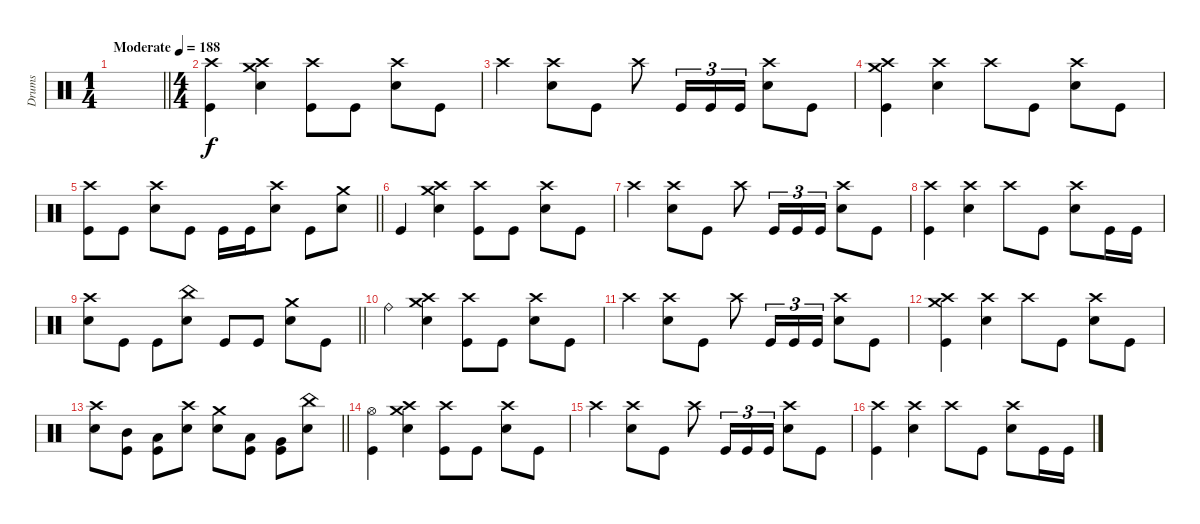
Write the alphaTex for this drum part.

\track ("Drums" "Drums") {instrument percussion}
\staff
\articulation defaults
\ts (1 4)
\tempo (188 "Moderate")
\clef neutral
\barLineRight lightlight
\ks c
|
\ts (4 4)
("Crash high (hit)" "Kick (hit)").4 ("Crash medium (hit)" "Crash high (hit)" "Electric Snare (hit)").4 ("Crash high (hit)" "Kick (hit)").8 "Kick (hit)".8 ("Crash high (hit)" "Electric Snare (hit)").8 "Kick (hit)".8 |
"Crash high (hit)".4 ("Crash high (hit)" "Electric Snare (hit)").8 "Kick (hit)".8 "Crash high (hit)".8 "Kick (hit)".16{tu (3 2)} "Kick (hit)".16{tu (3 2)} "Kick (hit)".16{tu (3 2)} ("Crash high (hit)" "Electric Snare (hit)").8 "Kick (hit)".8 |
("Crash medium (hit)" "Crash high (hit)" "Kick (hit)").4 ("Crash high (hit)" "Electric Snare (hit)").4 "Crash high (hit)".8 "Kick (hit)".8 ("Crash high (hit)" "Electric Snare (hit)").8 "Kick (hit)".8 |
\barLineRight lightlight
("Crash high (hit)" "Kick (hit)").8 "Kick (hit)".8 ("Crash high (hit)" "Electric Snare (hit)").8 "Kick (hit)".8 "Kick (hit)".16 "Kick (hit)".16 ("Crash high (hit)" "Electric Snare (hit)").8 "Kick (hit)".8 ("Crash medium (hit)" "Electric Snare (hit)").8 |
"Kick (hit)".4 ("Crash medium (hit)" "Crash high (hit)" "Electric Snare (hit)").4 ("Crash high (hit)" "Kick (hit)").8 "Kick (hit)".8 ("Crash high (hit)" "Electric Snare (hit)").8 "Kick (hit)".8 |
"Crash high (hit)".4 ("Crash high (hit)" "Electric Snare (hit)").8 "Kick (hit)".8 "Crash high (hit)".8 "Kick (hit)".16{tu (3 2)} "Kick (hit)".16{tu (3 2)} "Kick (hit)".16{tu (3 2)} ("Crash high (hit)" "Electric Snare (hit)").8 "Kick (hit)".8 |
("Crash high (hit)" "Kick (hit)").4 ("Crash high (hit)" "Electric Snare (hit)").4 "Crash high (hit)".8 "Kick (hit)".8 ("Crash high (hit)" "Electric Snare (hit)").8 "Kick (hit)".16 "Kick (hit)".16 |
\barLineRight lightlight
("Crash high (hit)" "Electric Snare (hit)").8 "Kick (hit)".8 "Kick (hit)".8 ("China (hit)" "Electric Snare (hit)").8 "Kick (hit)".8 "Kick (hit)".8 ("Crash medium (hit)" "Electric Snare (hit)").8 "Kick (hit)".8 |
"Ride (bell)".4 ("Crash medium (hit)" "Crash high (hit)" "Electric Snare (hit)").4 ("Crash high (hit)" "Kick (hit)").8 "Kick (hit)".8 ("Crash high (hit)" "Electric Snare (hit)").8 "Kick (hit)".8 |
"Crash high (hit)".4 ("Crash high (hit)" "Electric Snare (hit)").8 "Kick (hit)".8 "Crash high (hit)".8 "Kick (hit)".16{tu (3 2)} "Kick (hit)".16{tu (3 2)} "Kick (hit)".16{tu (3 2)} ("Crash high (hit)" "Electric Snare (hit)").8 "Kick (hit)".8 |
("Crash medium (hit)" "Crash high (hit)" "Kick (hit)").4 ("Crash high (hit)" "Electric Snare (hit)").4 "Crash high (hit)".8 "Kick (hit)".8 ("Crash high (hit)" "Electric Snare (hit)").8 "Kick (hit)".8 |
\barLineRight lightlight
("Crash high (hit)" "Electric Snare (hit)").8 ("Mid Tom (hit)" "Kick (hit)").8 ("Low Tom (hit)" "Kick (hit)").8 ("Crash high (hit)" "Electric Snare (hit)").8 ("Crash medium (hit)" "Electric Snare (hit)").8 ("Low Tom (hit)" "Kick (hit)").8 ("Very Low Tom (hit)" "Kick (hit)").8 ("China (hit)" "Electric Snare (hit)").8 |
("Hi-Hat (open)" "Kick (hit)").4 ("Crash medium (hit)" "Crash high (hit)" "Electric Snare (hit)").4 ("Crash high (hit)" "Kick (hit)").8 "Kick (hit)".8 ("Crash high (hit)" "Electric Snare (hit)").8 "Kick (hit)".8 |
"Crash high (hit)".4 ("Crash high (hit)" "Electric Snare (hit)").8 "Kick (hit)".8 "Crash high (hit)".8 "Kick (hit)".16{tu (3 2)} "Kick (hit)".16{tu (3 2)} "Kick (hit)".16{tu (3 2)} ("Crash high (hit)" "Electric Snare (hit)").8 "Kick (hit)".8 |
("Crash high (hit)" "Kick (hit)").4 ("Crash high (hit)" "Electric Snare (hit)").4 "Crash high (hit)".8 "Kick (hit)".8 ("Crash high (hit)" "Electric Snare (hit)").8 "Kick (hit)".16 "Kick (hit)".16
